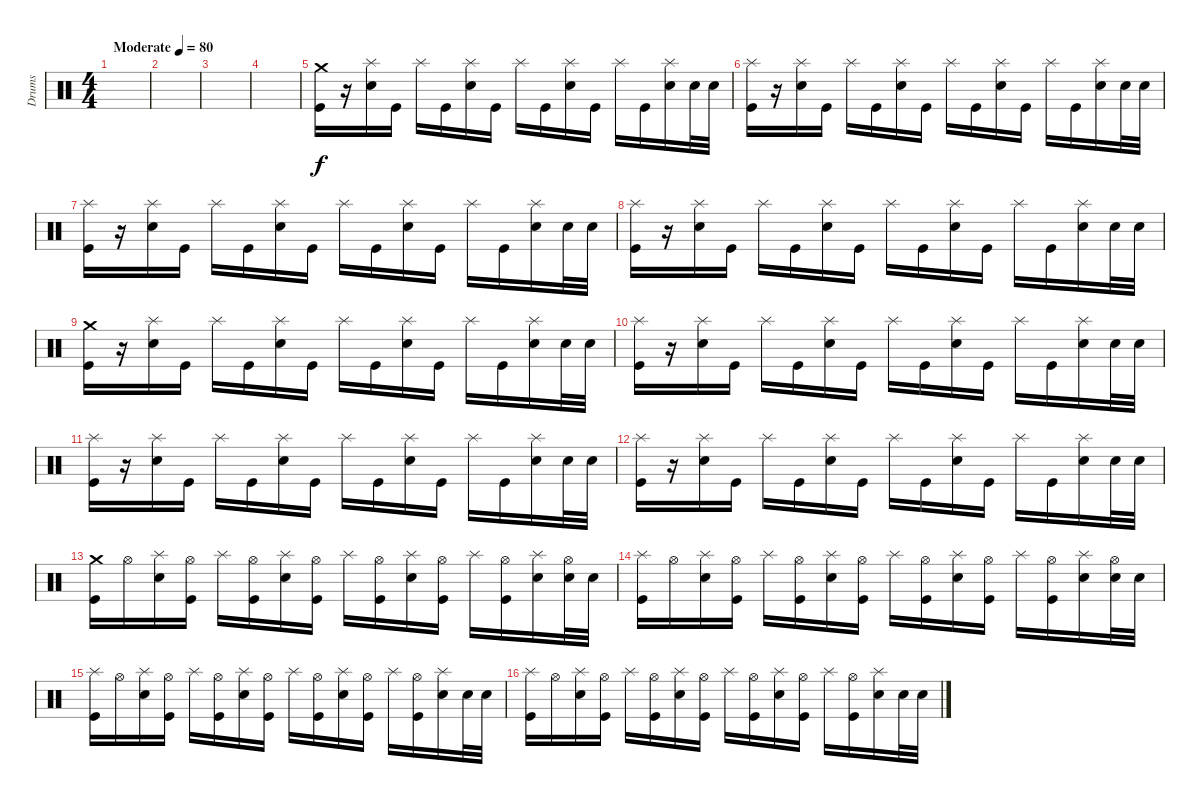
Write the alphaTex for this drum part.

\track ("Drums" "Drums") {instrument percussion}
\staff {score}
\articulation defaults
\ts (4 4)
\tempo (80 "Moderate")
\clef neutral
\ks c
|
|
|
|
("Crash medium (hit)" "Kick (hit)").16 r.16 ("Splash (hit)" "Electric Snare (hit)").16 "Kick (hit)".16 "Splash (hit)".16 "Kick (hit)".16 ("Splash (hit)" "Electric Snare (hit)").16 "Kick (hit)".16 "Splash (hit)".16 "Kick (hit)".16 ("Splash (hit)" "Electric Snare (hit)").16 "Kick (hit)".16 "Splash (hit)".16 "Kick (hit)".16 ("Splash (hit)" "Electric Snare (hit)").16 "Electric Snare (hit)".32 "Electric Snare (hit)".32 |
("Splash (hit)" "Kick (hit)").16 r.16 ("Splash (hit)" "Electric Snare (hit)").16 "Kick (hit)".16 "Splash (hit)".16 "Kick (hit)".16 ("Splash (hit)" "Electric Snare (hit)").16 "Kick (hit)".16 "Splash (hit)".16 "Kick (hit)".16 ("Splash (hit)" "Electric Snare (hit)").16 "Kick (hit)".16 "Splash (hit)".16 "Kick (hit)".16 ("Splash (hit)" "Electric Snare (hit)").16 "Electric Snare (hit)".32 "Electric Snare (hit)".32 |
("Splash (hit)" "Kick (hit)").16 r.16 ("Splash (hit)" "Electric Snare (hit)").16 "Kick (hit)".16 "Splash (hit)".16 "Kick (hit)".16 ("Splash (hit)" "Electric Snare (hit)").16 "Kick (hit)".16 "Splash (hit)".16 "Kick (hit)".16 ("Splash (hit)" "Electric Snare (hit)").16 "Kick (hit)".16 "Splash (hit)".16 "Kick (hit)".16 ("Splash (hit)" "Electric Snare (hit)").16 "Electric Snare (hit)".32 "Electric Snare (hit)".32 |
("Splash (hit)" "Kick (hit)").16 r.16 ("Splash (hit)" "Electric Snare (hit)").16 "Kick (hit)".16 "Splash (hit)".16 "Kick (hit)".16 ("Splash (hit)" "Electric Snare (hit)").16 "Kick (hit)".16 "Splash (hit)".16 "Kick (hit)".16 ("Splash (hit)" "Electric Snare (hit)").16 "Kick (hit)".16 "Splash (hit)".16 "Kick (hit)".16 ("Splash (hit)" "Electric Snare (hit)").16 "Electric Snare (hit)".32 "Electric Snare (hit)".32 |
("Crash medium (hit)" "Kick (hit)").16 r.16 ("Splash (hit)" "Electric Snare (hit)").16 "Kick (hit)".16 "Splash (hit)".16 "Kick (hit)".16 ("Splash (hit)" "Electric Snare (hit)").16 "Kick (hit)".16 "Splash (hit)".16 "Kick (hit)".16 ("Splash (hit)" "Electric Snare (hit)").16 "Kick (hit)".16 "Splash (hit)".16 "Kick (hit)".16 ("Splash (hit)" "Electric Snare (hit)").16 "Electric Snare (hit)".32 "Electric Snare (hit)".32 |
("Splash (hit)" "Kick (hit)").16 r.16 ("Splash (hit)" "Electric Snare (hit)").16 "Kick (hit)".16 "Splash (hit)".16 "Kick (hit)".16 ("Splash (hit)" "Electric Snare (hit)").16 "Kick (hit)".16 "Splash (hit)".16 "Kick (hit)".16 ("Splash (hit)" "Electric Snare (hit)").16 "Kick (hit)".16 "Splash (hit)".16 "Kick (hit)".16 ("Splash (hit)" "Electric Snare (hit)").16 "Electric Snare (hit)".32 "Electric Snare (hit)".32 |
("Splash (hit)" "Kick (hit)").16 r.16 ("Splash (hit)" "Electric Snare (hit)").16 "Kick (hit)".16 "Splash (hit)".16 "Kick (hit)".16 ("Splash (hit)" "Electric Snare (hit)").16 "Kick (hit)".16 "Splash (hit)".16 "Kick (hit)".16 ("Splash (hit)" "Electric Snare (hit)").16 "Kick (hit)".16 "Splash (hit)".16 "Kick (hit)".16 ("Splash (hit)" "Electric Snare (hit)").16 "Electric Snare (hit)".32 "Electric Snare (hit)".32 |
("Splash (hit)" "Kick (hit)").16 r.16 ("Splash (hit)" "Electric Snare (hit)").16 "Kick (hit)".16 "Splash (hit)".16 "Kick (hit)".16 ("Splash (hit)" "Electric Snare (hit)").16 "Kick (hit)".16 "Splash (hit)".16 "Kick (hit)".16 ("Splash (hit)" "Electric Snare (hit)").16 "Kick (hit)".16 "Splash (hit)".16 "Kick (hit)".16 ("Splash (hit)" "Electric Snare (hit)").16 "Electric Snare (hit)".32 "Electric Snare (hit)".32 |
("Crash medium (hit)" "Kick (hit)").16 "Hi-Hat (open)".16 ("Splash (hit)" "Electric Snare (hit)").16 ("Hi-Hat (open)" "Kick (hit)").16 "Splash (hit)".16 ("Hi-Hat (open)" "Kick (hit)").16 ("Splash (hit)" "Electric Snare (hit)").16 ("Hi-Hat (open)" "Kick (hit)").16 "Splash (hit)".16 ("Hi-Hat (open)" "Kick (hit)").16 ("Splash (hit)" "Electric Snare (hit)").16 ("Hi-Hat (open)" "Kick (hit)").16 "Splash (hit)".16 ("Hi-Hat (open)" "Kick (hit)").16 ("Splash (hit)" "Electric Snare (hit)").16 ("Hi-Hat (open)" "Electric Snare (hit)").32 "Electric Snare (hit)".32 |
("Splash (hit)" "Kick (hit)").16 "Hi-Hat (open)".16 ("Splash (hit)" "Electric Snare (hit)").16 ("Hi-Hat (open)" "Kick (hit)").16 "Splash (hit)".16 ("Hi-Hat (open)" "Kick (hit)").16 ("Splash (hit)" "Electric Snare (hit)").16 ("Hi-Hat (open)" "Kick (hit)").16 "Splash (hit)".16 ("Hi-Hat (open)" "Kick (hit)").16 ("Splash (hit)" "Electric Snare (hit)").16 ("Hi-Hat (open)" "Kick (hit)").16 "Splash (hit)".16 ("Hi-Hat (open)" "Kick (hit)").16 ("Splash (hit)" "Electric Snare (hit)").16 ("Hi-Hat (open)" "Electric Snare (hit)").32 "Electric Snare (hit)".32 |
("Splash (hit)" "Kick (hit)").16 "Hi-Hat (open)".16 ("Splash (hit)" "Electric Snare (hit)").16 ("Hi-Hat (open)" "Kick (hit)").16 "Splash (hit)".16 ("Hi-Hat (open)" "Kick (hit)").16 ("Splash (hit)" "Electric Snare (hit)").16 ("Hi-Hat (open)" "Kick (hit)").16 "Splash (hit)".16 ("Hi-Hat (open)" "Kick (hit)").16 ("Splash (hit)" "Electric Snare (hit)").16 ("Hi-Hat (open)" "Kick (hit)").16 "Splash (hit)".16 ("Hi-Hat (open)" "Kick (hit)").16 ("Splash (hit)" "Electric Snare (hit)").16 "Electric Snare (hit)".32 "Electric Snare (hit)".32 |
("Splash (hit)" "Kick (hit)").16 "Hi-Hat (open)".16 ("Splash (hit)" "Electric Snare (hit)").16 ("Hi-Hat (open)" "Kick (hit)").16 "Splash (hit)".16 ("Hi-Hat (open)" "Kick (hit)").16 ("Splash (hit)" "Electric Snare (hit)").16 ("Hi-Hat (open)" "Kick (hit)").16 "Splash (hit)".16 ("Hi-Hat (open)" "Kick (hit)").16 ("Splash (hit)" "Electric Snare (hit)").16 ("Hi-Hat (open)" "Kick (hit)").16 "Splash (hit)".16 ("Hi-Hat (open)" "Kick (hit)").16 ("Splash (hit)" "Electric Snare (hit)").16 "Electric Snare (hit)".32 "Electric Snare (hit)".32
